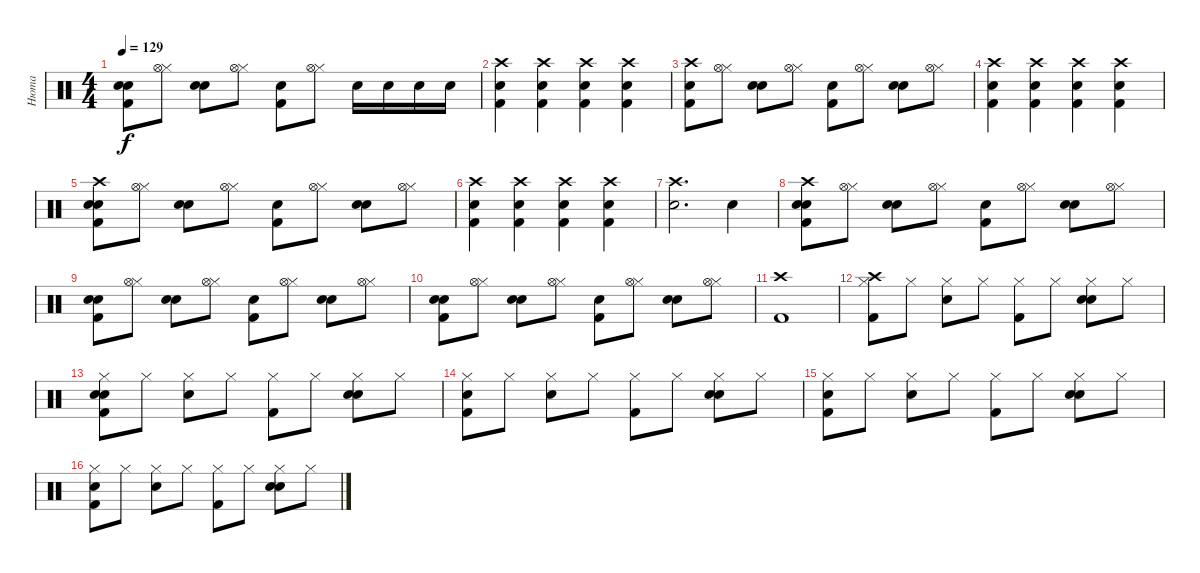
\track ("Нюта" "Нюта") {instrument percussion}
\staff {score}
\articulation defaults
\ts (4 4)
\tempo 129
\clef neutral
\ks c
("Snare (hit)" "Kick (hit) 2" "Snare (hit)").8{dy f} ("Hi-Hat (closed)" "Hi-Hat (open)").8 ("Snare (hit)" "Electric Snare (hit)").8 ("Hi-Hat (closed)" "Hi-Hat (open)").8 ("Snare (hit)" "Kick (hit) 2").8 ("Hi-Hat (closed)" "Hi-Hat (open)").8 "Electric Snare (hit)".16 "Electric Snare (hit)".16 "Electric Snare (hit)".16 "Electric Snare (hit)".16 |
("Electric Snare (hit)" "Crash high (hit)" "Kick (hit) 2").4 ("Electric Snare (hit)" "Crash high (hit)" "Kick (hit) 2").4 ("Electric Snare (hit)" "Crash high (hit)" "Kick (hit) 2").4 ("Electric Snare (hit)" "Crash high (hit)" "Kick (hit) 2").4 |
("Snare (hit)" "Kick (hit) 2" "Crash high (hit)").8 ("Hi-Hat (closed)" "Hi-Hat (open)").8 ("Snare (hit)" "Electric Snare (hit)").8 ("Hi-Hat (closed)" "Hi-Hat (open)").8 ("Snare (hit)" "Kick (hit) 2").8 ("Hi-Hat (closed)" "Hi-Hat (open)").8 ("Snare (hit)" "Electric Snare (hit)").8 ("Hi-Hat (closed)" "Hi-Hat (open)").8 |
("Electric Snare (hit)" "Crash high (hit)" "Kick (hit) 2").4 ("Electric Snare (hit)" "Crash high (hit)" "Kick (hit) 2").4 ("Electric Snare (hit)" "Crash high (hit)" "Kick (hit) 2").4 ("Electric Snare (hit)" "Crash high (hit)" "Kick (hit) 2").4 |
("Snare (hit)" "Kick (hit) 2" "Snare (hit)" "Crash high (hit)").8 ("Hi-Hat (closed)" "Hi-Hat (open)").8 ("Snare (hit)" "Electric Snare (hit)").8 ("Hi-Hat (closed)" "Hi-Hat (open)").8 ("Snare (hit)" "Kick (hit) 2").8 ("Hi-Hat (closed)" "Hi-Hat (open)").8 ("Snare (hit)" "Electric Snare (hit)").8 ("Hi-Hat (closed)" "Hi-Hat (open)").8 |
("Electric Snare (hit)" "Crash high (hit)" "Kick (hit) 2").4 ("Electric Snare (hit)" "Crash high (hit)" "Kick (hit) 2").4 ("Electric Snare (hit)" "Crash high (hit)" "Kick (hit) 2").4 ("Electric Snare (hit)" "Crash high (hit)" "Kick (hit) 2").4 |
("Electric Snare (hit)" "Crash high (hit)").2{d} "Electric Snare (hit)".4 |
("Snare (hit)" "Kick (hit) 2" "Snare (hit)" "Crash high (hit)").8 ("Hi-Hat (closed)" "Hi-Hat (open)").8 ("Snare (hit)" "Electric Snare (hit)").8 ("Hi-Hat (closed)" "Hi-Hat (open)").8 ("Snare (hit)" "Kick (hit) 2").8 ("Hi-Hat (closed)" "Hi-Hat (open)").8 ("Snare (hit)" "Electric Snare (hit)").8 ("Hi-Hat (closed)" "Hi-Hat (open)").8 |
("Snare (hit)" "Kick (hit) 2" "Snare (hit)").8 ("Hi-Hat (closed)" "Hi-Hat (open)").8 ("Snare (hit)" "Electric Snare (hit)").8 ("Hi-Hat (closed)" "Hi-Hat (open)").8 ("Snare (hit)" "Kick (hit) 2").8 ("Hi-Hat (closed)" "Hi-Hat (open)").8 ("Snare (hit)" "Electric Snare (hit)").8 ("Hi-Hat (closed)" "Hi-Hat (open)").8 |
("Snare (hit)" "Kick (hit) 2" "Snare (hit)").8 ("Hi-Hat (closed)" "Hi-Hat (open)").8 ("Snare (hit)" "Electric Snare (hit)").8 ("Hi-Hat (closed)" "Hi-Hat (open)").8 ("Snare (hit)" "Kick (hit) 2").8 ("Hi-Hat (closed)" "Hi-Hat (open)").8 ("Snare (hit)" "Electric Snare (hit)").8 ("Hi-Hat (closed)" "Hi-Hat (open)").8 |
("Crash high (hit)" "Kick (hit) 2").1 |
("Hi-Hat (closed)" "Kick (hit) 2" "Crash high (hit)").8 "Hi-Hat (closed)".8 ("Hi-Hat (closed)" "Electric Snare (hit)").8 "Hi-Hat (closed)".8 ("Hi-Hat (closed)" "Kick (hit) 2").8 "Hi-Hat (closed)".8 ("Electric Snare (hit)" "Hi-Hat (closed)" "Snare (hit)").8 "Hi-Hat (closed)".8 |
("Hi-Hat (closed)" "Kick (hit) 2" "Snare (hit)" "Snare (hit)").8 "Hi-Hat (closed)".8 ("Hi-Hat (closed)" "Electric Snare (hit)").8 "Hi-Hat (closed)".8 ("Hi-Hat (closed)" "Kick (hit) 2").8 "Hi-Hat (closed)".8 ("Electric Snare (hit)" "Hi-Hat (closed)" "Snare (hit)").8 "Hi-Hat (closed)".8 |
("Hi-Hat (closed)" "Kick (hit) 2" "Snare (hit)").8 "Hi-Hat (closed)".8 ("Hi-Hat (closed)" "Electric Snare (hit)").8 "Hi-Hat (closed)".8 ("Hi-Hat (closed)" "Kick (hit) 2").8 "Hi-Hat (closed)".8 ("Electric Snare (hit)" "Hi-Hat (closed)" "Snare (hit)").8 "Hi-Hat (closed)".8 |
("Hi-Hat (closed)" "Kick (hit) 2" "Snare (hit)").8 "Hi-Hat (closed)".8 ("Hi-Hat (closed)" "Electric Snare (hit)").8 "Hi-Hat (closed)".8 ("Hi-Hat (closed)" "Kick (hit) 2").8 "Hi-Hat (closed)".8 ("Electric Snare (hit)" "Hi-Hat (closed)" "Snare (hit)").8 "Hi-Hat (closed)".8 |
("Hi-Hat (closed)" "Kick (hit) 2" "Snare (hit)").8 "Hi-Hat (closed)".8 ("Hi-Hat (closed)" "Electric Snare (hit)").8 "Hi-Hat (closed)".8 ("Hi-Hat (closed)" "Kick (hit) 2").8 "Hi-Hat (closed)".8 ("Electric Snare (hit)" "Hi-Hat (closed)" "Snare (hit)").8 "Hi-Hat (closed)".8
